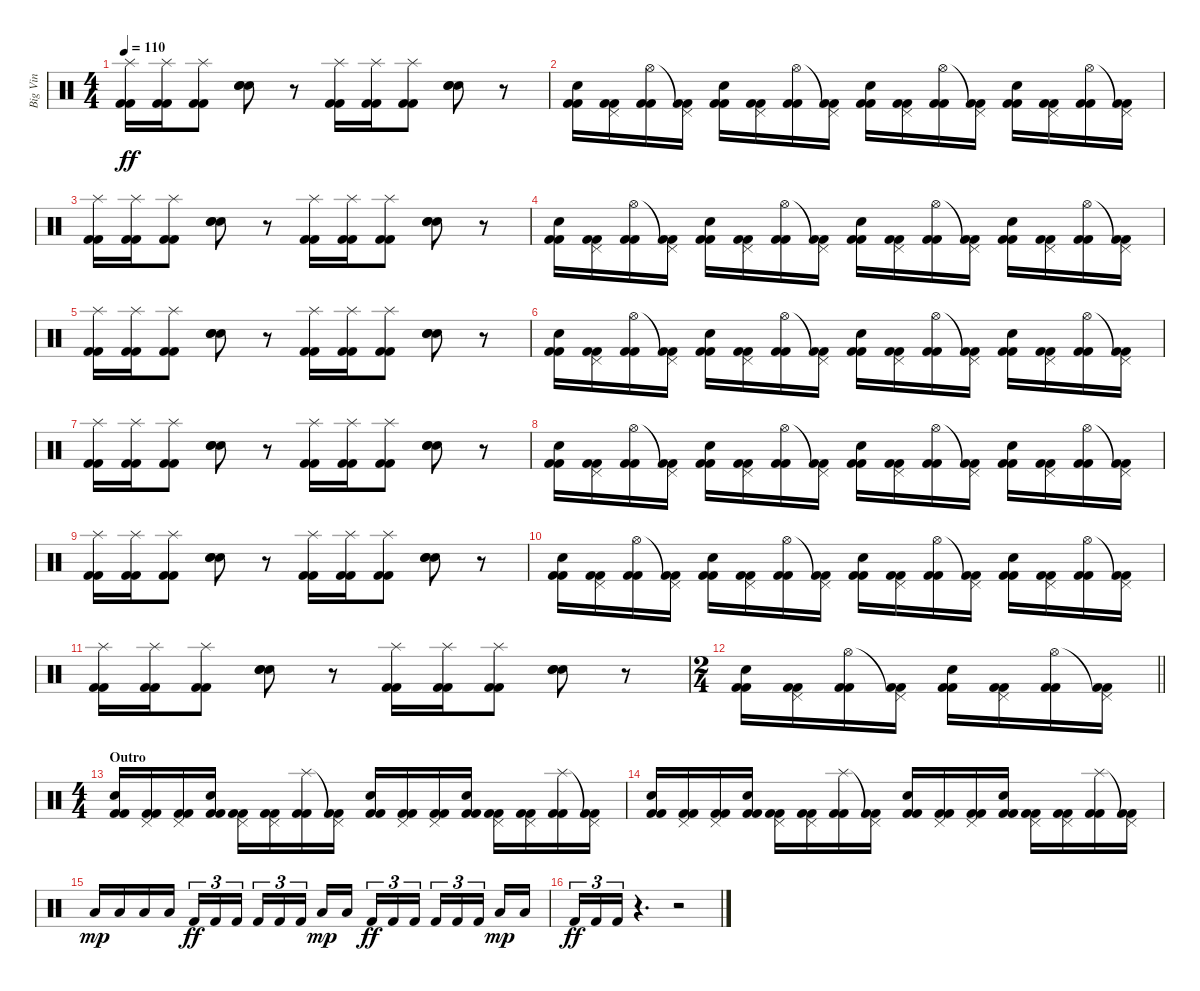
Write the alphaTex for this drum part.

\track ("Big Vin" "Big Vin") {instrument percussion}
\staff {score}
\articulation defaults
\ts (4 4)
\tempo 110
\clef neutral
\ks c
("Splash (hit)" "Kick (hit) 2" "Kick (hit) 2").16{dy ff} ("Splash (hit)" "Kick (hit) 2" "Kick (hit) 2").16 ("Splash (hit)" "Kick (hit) 2" "Kick (hit) 2").8 ("Snare (hit) 2" "Snare (hit) 2" "Snare (hit) 2").8 r.8 ("Splash (hit)" "Kick (hit) 2" "Kick (hit) 2").16 ("Splash (hit)" "Kick (hit) 2" "Kick (hit) 2").16 ("Splash (hit)" "Kick (hit) 2" "Kick (hit) 2").8 ("Snare (hit) 2" "Snare (hit) 2" "Snare (hit) 2").8 r.8 |
("Snare (hit) 2" "Kick (hit) 2" "Kick (hit) 2").16 ("Pedal Hi-Hat (hit)" "Kick (hit) 2" "Kick (hit) 2").16 ("Hi-Hat (open)" "Kick (hit) 2" "Kick (hit) 2").16 ("Pedal Hi-Hat (hit)"{t} "Kick (hit) 2" "Kick (hit) 2").16 ("Snare (hit) 2" "Kick (hit) 2" "Kick (hit) 2").16 ("Pedal Hi-Hat (hit)" "Kick (hit) 2" "Kick (hit) 2").16 ("Hi-Hat (open)" "Kick (hit) 2" "Kick (hit) 2").16 ("Pedal Hi-Hat (hit)"{t} "Kick (hit) 2" "Kick (hit) 2").16 ("Snare (hit) 2" "Kick (hit) 2" "Kick (hit) 2").16 ("Pedal Hi-Hat (hit)" "Kick (hit) 2" "Kick (hit) 2").16 ("Hi-Hat (open)" "Kick (hit) 2" "Kick (hit) 2").16 ("Pedal Hi-Hat (hit)"{t} "Kick (hit) 2" "Kick (hit) 2").16 ("Snare (hit) 2" "Kick (hit) 2" "Kick (hit) 2").16 ("Pedal Hi-Hat (hit)" "Kick (hit) 2" "Kick (hit) 2").16 ("Hi-Hat (open)" "Kick (hit) 2" "Kick (hit) 2").16 ("Pedal Hi-Hat (hit)"{t} "Kick (hit) 2" "Kick (hit) 2").16 |
("Splash (hit)" "Kick (hit) 2" "Kick (hit) 2").16 ("Splash (hit)" "Kick (hit) 2" "Kick (hit) 2").16 ("Splash (hit)" "Kick (hit) 2" "Kick (hit) 2").8 ("Snare (hit) 2" "Snare (hit) 2" "Snare (hit) 2").8 r.8 ("Splash (hit)" "Kick (hit) 2" "Kick (hit) 2").16 ("Splash (hit)" "Kick (hit) 2" "Kick (hit) 2").16 ("Splash (hit)" "Kick (hit) 2" "Kick (hit) 2").8 ("Snare (hit) 2" "Snare (hit) 2" "Snare (hit) 2").8 r.8 |
("Snare (hit) 2" "Kick (hit) 2" "Kick (hit) 2").16 ("Pedal Hi-Hat (hit)" "Kick (hit) 2" "Kick (hit) 2").16 ("Hi-Hat (open)" "Kick (hit) 2" "Kick (hit) 2").16 ("Pedal Hi-Hat (hit)"{t} "Kick (hit) 2" "Kick (hit) 2").16 ("Snare (hit) 2" "Kick (hit) 2" "Kick (hit) 2").16 ("Pedal Hi-Hat (hit)" "Kick (hit) 2" "Kick (hit) 2").16 ("Hi-Hat (open)" "Kick (hit) 2" "Kick (hit) 2").16 ("Pedal Hi-Hat (hit)"{t} "Kick (hit) 2" "Kick (hit) 2").16 ("Snare (hit) 2" "Kick (hit) 2" "Kick (hit) 2").16 ("Pedal Hi-Hat (hit)" "Kick (hit) 2" "Kick (hit) 2").16 ("Hi-Hat (open)" "Kick (hit) 2" "Kick (hit) 2").16 ("Pedal Hi-Hat (hit)"{t} "Kick (hit) 2" "Kick (hit) 2").16 ("Snare (hit) 2" "Kick (hit) 2" "Kick (hit) 2").16 ("Pedal Hi-Hat (hit)" "Kick (hit) 2" "Kick (hit) 2").16 ("Hi-Hat (open)" "Kick (hit) 2" "Kick (hit) 2").16 ("Pedal Hi-Hat (hit)"{t} "Kick (hit) 2" "Kick (hit) 2").16 |
("Splash (hit)" "Kick (hit) 2" "Kick (hit) 2").16 ("Splash (hit)" "Kick (hit) 2" "Kick (hit) 2").16 ("Splash (hit)" "Kick (hit) 2" "Kick (hit) 2").8 ("Snare (hit) 2" "Snare (hit) 2" "Snare (hit) 2").8 r.8 ("Splash (hit)" "Kick (hit) 2" "Kick (hit) 2").16 ("Splash (hit)" "Kick (hit) 2" "Kick (hit) 2").16 ("Splash (hit)" "Kick (hit) 2" "Kick (hit) 2").8 ("Snare (hit) 2" "Snare (hit) 2" "Snare (hit) 2").8 r.8 |
("Snare (hit) 2" "Kick (hit) 2" "Kick (hit) 2").16 ("Pedal Hi-Hat (hit)" "Kick (hit) 2" "Kick (hit) 2").16 ("Hi-Hat (open)" "Kick (hit) 2" "Kick (hit) 2").16 ("Pedal Hi-Hat (hit)"{t} "Kick (hit) 2" "Kick (hit) 2").16 ("Snare (hit) 2" "Kick (hit) 2" "Kick (hit) 2").16 ("Pedal Hi-Hat (hit)" "Kick (hit) 2" "Kick (hit) 2").16 ("Hi-Hat (open)" "Kick (hit) 2" "Kick (hit) 2").16 ("Pedal Hi-Hat (hit)"{t} "Kick (hit) 2" "Kick (hit) 2").16 ("Snare (hit) 2" "Kick (hit) 2" "Kick (hit) 2").16 ("Pedal Hi-Hat (hit)" "Kick (hit) 2" "Kick (hit) 2").16 ("Hi-Hat (open)" "Kick (hit) 2" "Kick (hit) 2").16 ("Pedal Hi-Hat (hit)"{t} "Kick (hit) 2" "Kick (hit) 2").16 ("Snare (hit) 2" "Kick (hit) 2" "Kick (hit) 2").16 ("Pedal Hi-Hat (hit)" "Kick (hit) 2" "Kick (hit) 2").16 ("Hi-Hat (open)" "Kick (hit) 2" "Kick (hit) 2").16 ("Pedal Hi-Hat (hit)"{t} "Kick (hit) 2" "Kick (hit) 2").16 |
("Splash (hit)" "Kick (hit) 2" "Kick (hit) 2").16 ("Splash (hit)" "Kick (hit) 2" "Kick (hit) 2").16 ("Splash (hit)" "Kick (hit) 2" "Kick (hit) 2").8 ("Snare (hit) 2" "Snare (hit) 2" "Snare (hit) 2").8 r.8 ("Splash (hit)" "Kick (hit) 2" "Kick (hit) 2").16 ("Splash (hit)" "Kick (hit) 2" "Kick (hit) 2").16 ("Splash (hit)" "Kick (hit) 2" "Kick (hit) 2").8 ("Snare (hit) 2" "Snare (hit) 2" "Snare (hit) 2").8 r.8 |
("Snare (hit) 2" "Kick (hit) 2" "Kick (hit) 2").16 ("Pedal Hi-Hat (hit)" "Kick (hit) 2" "Kick (hit) 2").16 ("Hi-Hat (open)" "Kick (hit) 2" "Kick (hit) 2").16 ("Pedal Hi-Hat (hit)"{t} "Kick (hit) 2" "Kick (hit) 2").16 ("Snare (hit) 2" "Kick (hit) 2" "Kick (hit) 2").16 ("Pedal Hi-Hat (hit)" "Kick (hit) 2" "Kick (hit) 2").16 ("Hi-Hat (open)" "Kick (hit) 2" "Kick (hit) 2").16 ("Pedal Hi-Hat (hit)"{t} "Kick (hit) 2" "Kick (hit) 2").16 ("Snare (hit) 2" "Kick (hit) 2" "Kick (hit) 2").16 ("Pedal Hi-Hat (hit)" "Kick (hit) 2" "Kick (hit) 2").16 ("Hi-Hat (open)" "Kick (hit) 2" "Kick (hit) 2").16 ("Pedal Hi-Hat (hit)"{t} "Kick (hit) 2" "Kick (hit) 2").16 ("Snare (hit) 2" "Kick (hit) 2" "Kick (hit) 2").16 ("Pedal Hi-Hat (hit)" "Kick (hit) 2" "Kick (hit) 2").16 ("Hi-Hat (open)" "Kick (hit) 2" "Kick (hit) 2").16 ("Pedal Hi-Hat (hit)"{t} "Kick (hit) 2" "Kick (hit) 2").16 |
("Splash (hit)" "Kick (hit) 2" "Kick (hit) 2").16 ("Splash (hit)" "Kick (hit) 2" "Kick (hit) 2").16 ("Splash (hit)" "Kick (hit) 2" "Kick (hit) 2").8 ("Snare (hit) 2" "Snare (hit) 2" "Snare (hit) 2").8 r.8 ("Splash (hit)" "Kick (hit) 2" "Kick (hit) 2").16 ("Splash (hit)" "Kick (hit) 2" "Kick (hit) 2").16 ("Splash (hit)" "Kick (hit) 2" "Kick (hit) 2").8 ("Snare (hit) 2" "Snare (hit) 2" "Snare (hit) 2").8 r.8 |
("Snare (hit) 2" "Kick (hit) 2" "Kick (hit) 2").16 ("Pedal Hi-Hat (hit)" "Kick (hit) 2" "Kick (hit) 2").16 ("Hi-Hat (open)" "Kick (hit) 2" "Kick (hit) 2").16 ("Pedal Hi-Hat (hit)"{t} "Kick (hit) 2" "Kick (hit) 2").16 ("Snare (hit) 2" "Kick (hit) 2" "Kick (hit) 2").16 ("Pedal Hi-Hat (hit)" "Kick (hit) 2" "Kick (hit) 2").16 ("Hi-Hat (open)" "Kick (hit) 2" "Kick (hit) 2").16 ("Pedal Hi-Hat (hit)"{t} "Kick (hit) 2" "Kick (hit) 2").16 ("Snare (hit) 2" "Kick (hit) 2" "Kick (hit) 2").16 ("Pedal Hi-Hat (hit)" "Kick (hit) 2" "Kick (hit) 2").16 ("Hi-Hat (open)" "Kick (hit) 2" "Kick (hit) 2").16 ("Pedal Hi-Hat (hit)"{t} "Kick (hit) 2" "Kick (hit) 2").16 ("Snare (hit) 2" "Kick (hit) 2" "Kick (hit) 2").16 ("Pedal Hi-Hat (hit)" "Kick (hit) 2" "Kick (hit) 2").16 ("Hi-Hat (open)" "Kick (hit) 2" "Kick (hit) 2").16 ("Pedal Hi-Hat (hit)"{t} "Kick (hit) 2" "Kick (hit) 2").16 |
("Splash (hit)" "Kick (hit) 2" "Kick (hit) 2").16 ("Splash (hit)" "Kick (hit) 2" "Kick (hit) 2").16 ("Splash (hit)" "Kick (hit) 2" "Kick (hit) 2").8 ("Snare (hit) 2" "Snare (hit) 2" "Snare (hit) 2").8 r.8 ("Splash (hit)" "Kick (hit) 2" "Kick (hit) 2").16 ("Splash (hit)" "Kick (hit) 2" "Kick (hit) 2").16 ("Splash (hit)" "Kick (hit) 2" "Kick (hit) 2").8 ("Snare (hit) 2" "Snare (hit) 2" "Snare (hit) 2").8 r.8 |
\ts (2 4)
\barLineRight lightlight
("Snare (hit) 2" "Kick (hit) 2" "Kick (hit) 2").16 ("Pedal Hi-Hat (hit)" "Kick (hit) 2" "Kick (hit) 2").16 ("Hi-Hat (open)" "Kick (hit) 2" "Kick (hit) 2").16 ("Pedal Hi-Hat (hit)"{t} "Kick (hit) 2" "Kick (hit) 2").16 ("Snare (hit) 2" "Kick (hit) 2" "Kick (hit) 2").16 ("Pedal Hi-Hat (hit)" "Kick (hit) 2" "Kick (hit) 2").16 ("Hi-Hat (open)" "Kick (hit) 2" "Kick (hit) 2").16 ("Pedal Hi-Hat (hit)"{t} "Kick (hit) 2" "Kick (hit) 2").16 |
\ts (4 4)
\section ("" "Outro")
("Snare (hit) 2" "Kick (hit) 2" "Kick (hit) 2").16 ("Pedal Hi-Hat (hit)" "Kick (hit) 2" "Kick (hit) 2").16 ("Pedal Hi-Hat (hit)" "Kick (hit) 2" "Kick (hit) 2").16 ("Snare (hit) 2" "Kick (hit) 2" "Kick (hit) 2").16 ("Pedal Hi-Hat (hit)" "Kick (hit) 2" "Kick (hit) 2").16 ("Pedal Hi-Hat (hit)" "Kick (hit) 2" "Kick (hit) 2").16 ("Splash (hit)" "Kick (hit) 2" "Kick (hit) 2").16 ("Pedal Hi-Hat (hit)"{t} "Kick (hit) 2" "Kick (hit) 2").16 ("Snare (hit) 2" "Kick (hit) 2" "Kick (hit) 2").16 ("Pedal Hi-Hat (hit)" "Kick (hit) 2" "Kick (hit) 2").16 ("Pedal Hi-Hat (hit)" "Kick (hit) 2" "Kick (hit) 2").16 ("Snare (hit) 2" "Kick (hit) 2" "Kick (hit) 2").16 ("Pedal Hi-Hat (hit)" "Kick (hit) 2" "Kick (hit) 2").16 ("Pedal Hi-Hat (hit)" "Kick (hit) 2" "Kick (hit) 2").16 ("Splash (hit)" "Kick (hit) 2" "Kick (hit) 2").16 ("Pedal Hi-Hat (hit)"{t} "Kick (hit) 2" "Kick (hit) 2").16 |
("Snare (hit) 2" "Kick (hit) 2" "Kick (hit) 2").16 ("Pedal Hi-Hat (hit)" "Kick (hit) 2" "Kick (hit) 2").16 ("Pedal Hi-Hat (hit)" "Kick (hit) 2" "Kick (hit) 2").16 ("Snare (hit) 2" "Kick (hit) 2" "Kick (hit) 2").16 ("Pedal Hi-Hat (hit)" "Kick (hit) 2" "Kick (hit) 2").16 ("Pedal Hi-Hat (hit)" "Kick (hit) 2" "Kick (hit) 2").16 ("Splash (hit)" "Kick (hit) 2" "Kick (hit) 2").16 ("Pedal Hi-Hat (hit)"{t} "Kick (hit) 2" "Kick (hit) 2").16 ("Snare (hit) 2" "Kick (hit) 2" "Kick (hit) 2").16 ("Pedal Hi-Hat (hit)" "Kick (hit) 2" "Kick (hit) 2").16 ("Pedal Hi-Hat (hit)" "Kick (hit) 2" "Kick (hit) 2").16 ("Snare (hit) 2" "Kick (hit) 2" "Kick (hit) 2").16 ("Pedal Hi-Hat (hit)" "Kick (hit) 2" "Kick (hit) 2").16 ("Pedal Hi-Hat (hit)" "Kick (hit) 2" "Kick (hit) 2").16 ("Splash (hit)" "Kick (hit) 2" "Kick (hit) 2").16 ("Pedal Hi-Hat (hit)"{t} "Kick (hit) 2" "Kick (hit) 2").16 |
"Low Floor Tom (hit)".16{dy mp} "Low Floor Tom (hit)".16 "Low Floor Tom (hit)".16 "Low Floor Tom (hit)".16 "Kick (hit) 2".16{tu (3 2) dy ff} "Kick (hit) 2".16{tu (3 2)} "Kick (hit) 2".16{tu (3 2) beam splitsecondary} "Kick (hit) 2".16{tu (3 2)} "Kick (hit) 2".16{tu (3 2)} "Kick (hit) 2".16{tu (3 2)} "Low Floor Tom (hit)".16{dy mp} "Low Floor Tom (hit)".16{beam splitsecondary} "Kick (hit) 2".16{tu (3 2) dy ff} "Kick (hit) 2".16{tu (3 2)} "Kick (hit) 2".16{tu (3 2)} "Kick (hit) 2".16{tu (3 2)} "Kick (hit) 2".16{tu (3 2)} "Kick (hit) 2".16{tu (3 2) beam splitsecondary} "Low Floor Tom (hit)".16{dy mp} "Low Floor Tom (hit)".16 |
"Kick (hit) 2".16{tu (3 2) dy ff} "Kick (hit) 2".16{tu (3 2)} "Kick (hit) 2".16{tu (3 2)} r.4{d} r.2
